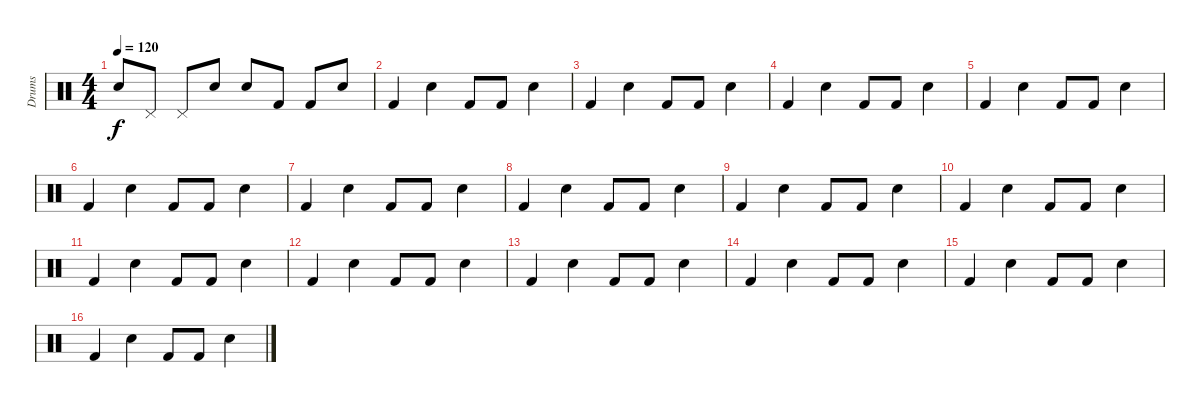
\track ("Drums" "Drums") {instrument percussion}
\staff {score}
\articulation defaults
\ts (4 4)
\tempo 120
\clef neutral
\ks c "Snare (hit) 2".8{dy f} "Pedal Hi-Hat (hit)".8 "Pedal Hi-Hat (hit)".8 "Snare (hit) 2".8 "Snare (hit) 2".8 "Kick (hit) 2".8 "Kick (hit) 2".8 "Snare (hit) 2".8
|
"Kick (hit) 2".4 "Snare (hit) 2".4 "Kick (hit) 2".8 "Kick (hit) 2".8 "Snare (hit) 2".4 |
"Kick (hit) 2".4 "Snare (hit) 2".4 "Kick (hit) 2".8 "Kick (hit) 2".8 "Snare (hit) 2".4 |
"Kick (hit) 2".4 "Snare (hit) 2".4 "Kick (hit) 2".8 "Kick (hit) 2".8 "Snare (hit) 2".4 |
"Kick (hit) 2".4 "Snare (hit) 2".4 "Kick (hit) 2".8 "Kick (hit) 2".8 "Snare (hit) 2".4 |
"Kick (hit) 2".4 "Snare (hit) 2".4 "Kick (hit) 2".8 "Kick (hit) 2".8 "Snare (hit) 2".4 |
"Kick (hit) 2".4 "Snare (hit) 2".4 "Kick (hit) 2".8 "Kick (hit) 2".8 "Snare (hit) 2".4 |
"Kick (hit) 2".4 "Snare (hit) 2".4 "Kick (hit) 2".8 "Kick (hit) 2".8 "Snare (hit) 2".4 |
"Kick (hit) 2".4 "Snare (hit) 2".4 "Kick (hit) 2".8 "Kick (hit) 2".8 "Snare (hit) 2".4 |
"Kick (hit) 2".4 "Snare (hit) 2".4 "Kick (hit) 2".8 "Kick (hit) 2".8 "Snare (hit) 2".4 |
"Kick (hit) 2".4 "Snare (hit) 2".4 "Kick (hit) 2".8 "Kick (hit) 2".8 "Snare (hit) 2".4 |
"Kick (hit) 2".4 "Snare (hit) 2".4 "Kick (hit) 2".8 "Kick (hit) 2".8 "Snare (hit) 2".4 |
"Kick (hit) 2".4 "Snare (hit) 2".4 "Kick (hit) 2".8 "Kick (hit) 2".8 "Snare (hit) 2".4 |
"Kick (hit) 2".4 "Snare (hit) 2".4 "Kick (hit) 2".8 "Kick (hit) 2".8 "Snare (hit) 2".4 |
"Kick (hit) 2".4 "Snare (hit) 2".4 "Kick (hit) 2".8 "Kick (hit) 2".8 "Snare (hit) 2".4 |
"Kick (hit) 2".4 "Snare (hit) 2".4 "Kick (hit) 2".8 "Kick (hit) 2".8 "Snare (hit) 2".4
